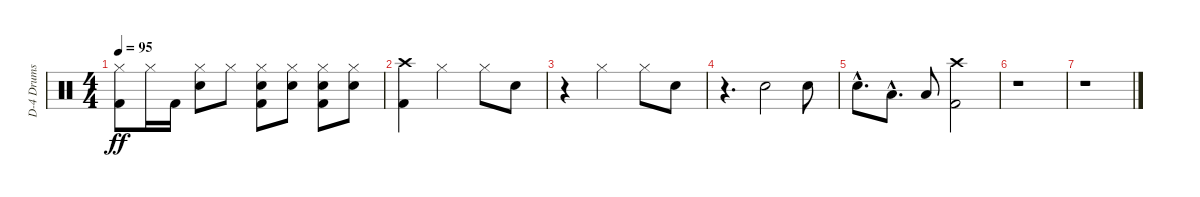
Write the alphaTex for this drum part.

\track ("D-4 Drums" "D-4 Drums") {instrument percussion}
\staff {score}
\articulation defaults
\ts (4 4)
\tempo 95
\clef neutral
\ks c
("Kick (hit) 2" "Hi-Hat (closed)").8{dy ff} "Hi-Hat (closed)".16 "Kick (hit) 2".16 ("Snare (hit) 2" "Hi-Hat (closed)").8 "Hi-Hat (closed)".8 ("Kick (hit) 2" "Snare (hit) 2" "Hi-Hat (closed)").8 ("Snare (hit) 2" "Hi-Hat (closed)").8 ("Kick (hit) 2" "Snare (hit) 2" "Hi-Hat (closed)").8 ("Snare (hit) 2" "Hi-Hat (closed)").8 |
("Kick (hit) 2" "Crash high (hit)").4 "Hi-Hat (closed)".2 "Hi-Hat (closed)".8 "Snare (hit) 2".8 |
r.4 "Hi-Hat (closed)".2 "Hi-Hat (closed)".8 "Snare (hit) 2".8 |
r.4{d} "Snare (hit) 2".2 "Snare (hit) 2".8 |
"Snare (hit) 2"{hac}.8{d} "Low Tom (hit)"{hac}.8{d} "Low Floor Tom (hit)".8 ("Kick (hit) 2" "Crash high (hit)").2 |
r.1 |
r.1
